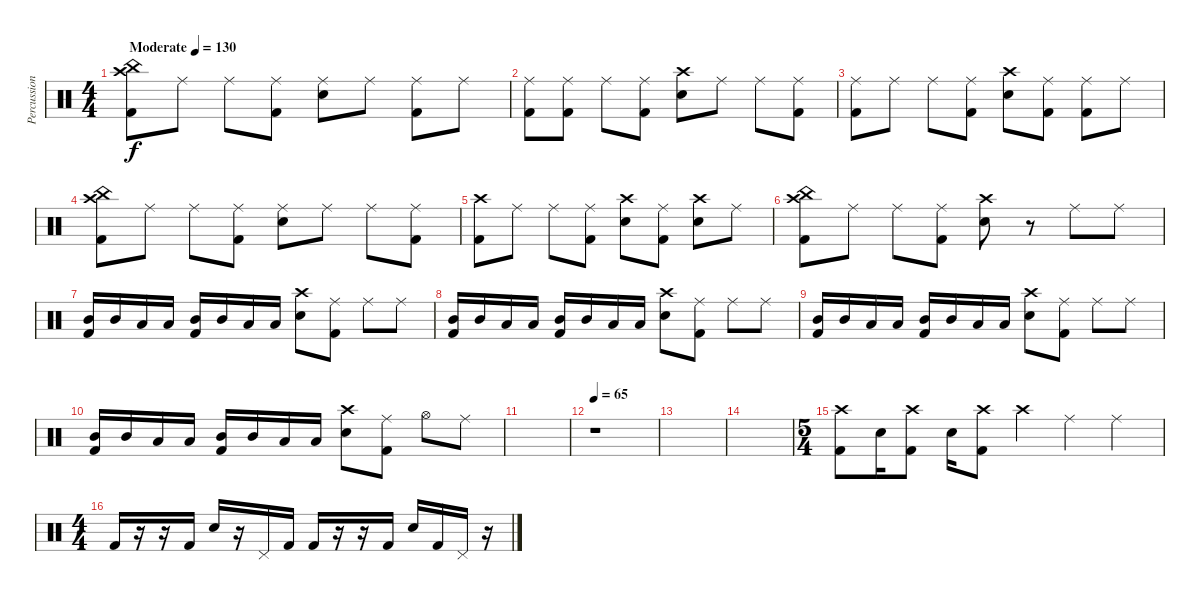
\track ("Percussioni" "Percussion") {instrument percussion}
\staff {score}
\articulation defaults
\ts (4 4)
\tempo (130 "Moderate")
\clef neutral
\ks c
("Crash high (hit)" "China (hit)" "Kick (hit) 2").8{dy f} "Ride (middle)".8 "Ride (middle)".8 ("Ride (middle)" "Kick (hit) 2").8 ("Ride (middle)" "Snare (hit) 2").8 "Ride (middle)".8 ("Ride (middle)" "Kick (hit) 2").8 "Ride (middle)".8 |
("Ride (middle)" "Kick (hit) 2").8 ("Ride (middle)" "Kick (hit) 2").8 "Ride (middle)".8 ("Ride (middle)" "Kick (hit) 2").8 ("Crash high (hit)" "Snare (hit) 2").8 "Ride (middle)".8 "Ride (middle)".8 ("Ride (middle)" "Kick (hit) 2").8 |
("Ride (middle)" "Kick (hit) 2").8 "Ride (middle)".8 "Ride (middle)".8 ("Ride (middle)" "Kick (hit) 2").8 ("Crash high (hit)" "Snare (hit) 2").8 ("Ride (middle)" "Kick (hit) 2").8 ("Ride (middle)" "Kick (hit) 2").8 "Ride (middle)".8 |
("Crash high (hit)" "China (hit)" "Kick (hit) 2").8 "Ride (middle)".8 "Ride (middle)".8 ("Ride (middle)" "Kick (hit) 2").8 ("Ride (middle)" "Snare (hit) 2").8 "Ride (middle)".8 "Ride (middle)".8 ("Ride (middle)" "Kick (hit) 2").8 |
("Crash high (hit)" "Kick (hit) 2").8 "Ride (middle)".8 "Ride (middle)".8 ("Ride (middle)" "Kick (hit) 2").8 ("Crash high (hit)" "Snare (hit) 2").8 ("Ride (middle)" "Kick (hit) 2").8 ("Crash high (hit)" "Snare (hit) 2").8 "Ride (middle)".8 |
("Crash high (hit)" "China (hit)" "Kick (hit) 2").8 "Ride (middle)".8 "Ride (middle)".8 ("Ride (middle)" "Kick (hit) 2").8 ("Crash high (hit)" "Snare (hit) 2").8 r.8 "Ride (middle)".8 "Ride (middle)".8 |
("Mid Tom (hit)" "Kick (hit) 2").16 "Mid Tom (hit)".16 "Low Tom (hit)".16 "Low Tom (hit)".16 ("Mid Tom (hit)" "Kick (hit) 2").16 "Mid Tom (hit)".16 "Low Tom (hit)".16 "Low Tom (hit)".16 ("Crash high (hit)" "Snare (hit) 2").8 ("Ride (middle)" "Kick (hit) 2").8 "Ride (middle)".8 "Ride (middle)".8 |
("Mid Tom (hit)" "Kick (hit) 2").16 "Mid Tom (hit)".16 "Low Tom (hit)".16 "Low Tom (hit)".16 ("Mid Tom (hit)" "Kick (hit) 2").16 "Mid Tom (hit)".16 "Low Tom (hit)".16 "Low Tom (hit)".16 ("Crash high (hit)" "Snare (hit) 2").8 ("Ride (middle)" "Kick (hit) 2").8 "Ride (middle)".8 "Ride (middle)".8 |
("Mid Tom (hit)" "Kick (hit) 2").16 "Mid Tom (hit)".16 "Low Tom (hit)".16 "Low Tom (hit)".16 ("Mid Tom (hit)" "Kick (hit) 2").16 "Mid Tom (hit)".16 "Low Tom (hit)".16 "Low Tom (hit)".16 ("Crash high (hit)" "Snare (hit) 2").8 ("Ride (middle)" "Kick (hit) 2").8 "Ride (middle)".8 "Ride (middle)".8 |
("Mid Tom (hit)" "Kick (hit) 2").16 "Mid Tom (hit)".16 "Low Tom (hit)".16 "Low Tom (hit)".16 ("Mid Tom (hit)" "Kick (hit) 2").16 "Mid Tom (hit)".16 "Low Tom (hit)".16 "Low Tom (hit)".16 ("Crash high (hit)" "Snare (hit) 2").8 ("Ride (middle)" "Kick (hit) 2").8 "Hi-Hat (open)".8 "Ride (middle)".8 |
|
\tempo 65
r.1 |
|
|
\ts (5 4)
("Crash high (hit)" "Kick (hit) 2").8 "Snare (hit) 2".16 ("Crash high (hit)" "Kick (hit) 2").8 "Snare (hit) 2".16 ("Crash high (hit)" "Kick (hit) 2").8 "Crash high (hit)".4 "Ride (middle)".4 "Ride (middle)".4 |
\ts (4 4)
"Kick (hit) 2".16 r.16 r.16 "Kick (hit) 2".16 "Snare (hit) 2".16 r.16 "Pedal Hi-Hat (hit)".16 "Kick (hit) 2".16 "Kick (hit) 2".16 r.16 r.16 "Kick (hit) 2".16 "Snare (hit) 2".16 "Kick (hit) 2".16 "Pedal Hi-Hat (hit)".16 r.16
